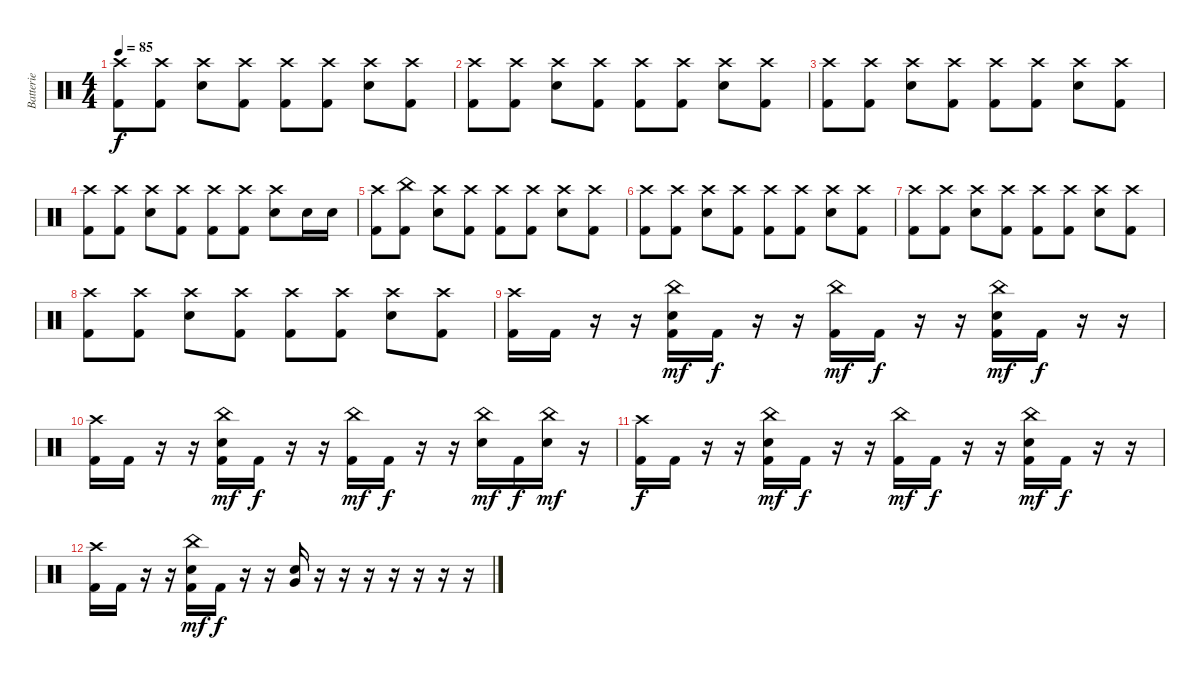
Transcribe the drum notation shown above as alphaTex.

\track ("Batterie" "Batterie") {instrument percussion}
\staff {score}
\articulation defaults
\ts (4 4)
\tempo 85
\clef neutral
\ks c
("Crash high (hit)" "Kick (hit) 2").8{dy f} ("Crash high (hit)" "Kick (hit) 2").8 ("Crash high (hit)" "Electric Snare (hit)").8 ("Crash high (hit)" "Kick (hit) 2").8 ("Crash high (hit)" "Kick (hit) 2").8 ("Crash high (hit)" "Kick (hit) 2").8 ("Crash high (hit)" "Electric Snare (hit)").8 ("Crash high (hit)" "Kick (hit) 2").8 |
("Crash high (hit)" "Kick (hit) 2").8 ("Crash high (hit)" "Kick (hit) 2").8 ("Crash high (hit)" "Electric Snare (hit)").8 ("Crash high (hit)" "Kick (hit) 2").8 ("Crash high (hit)" "Kick (hit) 2").8 ("Crash high (hit)" "Kick (hit) 2").8 ("Crash high (hit)" "Electric Snare (hit)").8 ("Crash high (hit)" "Kick (hit) 2").8 |
("Crash high (hit)" "Kick (hit) 2").8 ("Crash high (hit)" "Kick (hit) 2").8 ("Crash high (hit)" "Electric Snare (hit)").8 ("Crash high (hit)" "Kick (hit) 2").8 ("Crash high (hit)" "Kick (hit) 2").8 ("Crash high (hit)" "Kick (hit) 2").8 ("Crash high (hit)" "Electric Snare (hit)").8 ("Crash high (hit)" "Kick (hit) 2").8 |
("Crash high (hit)" "Kick (hit) 2").8 ("Crash high (hit)" "Kick (hit) 2").8 ("Crash high (hit)" "Electric Snare (hit)").8 ("Crash high (hit)" "Kick (hit) 2").8 ("Crash high (hit)" "Kick (hit) 2").8 ("Crash high (hit)" "Kick (hit) 2").8 ("Crash high (hit)" "Electric Snare (hit)").8 "Electric Snare (hit)".16 "Electric Snare (hit)".16 |
("Crash high (hit)" "Kick (hit) 2").8 ("China (hit)" "Kick (hit) 2").8 ("Crash high (hit)" "Electric Snare (hit)").8 ("Crash high (hit)" "Kick (hit) 2").8 ("Crash high (hit)" "Kick (hit) 2").8 ("Crash high (hit)" "Kick (hit) 2").8 ("Crash high (hit)" "Electric Snare (hit)").8 ("Crash high (hit)" "Kick (hit) 2").8 |
("Crash high (hit)" "Kick (hit) 2").8 ("Crash high (hit)" "Kick (hit) 2").8 ("Crash high (hit)" "Electric Snare (hit)").8 ("Crash high (hit)" "Kick (hit) 2").8 ("Crash high (hit)" "Kick (hit) 2").8 ("Crash high (hit)" "Kick (hit) 2").8 ("Crash high (hit)" "Electric Snare (hit)").8 ("Crash high (hit)" "Kick (hit) 2").8 |
("Crash high (hit)" "Kick (hit) 2").8 ("Crash high (hit)" "Kick (hit) 2").8 ("Crash high (hit)" "Electric Snare (hit)").8 ("Crash high (hit)" "Kick (hit) 2").8 ("Crash high (hit)" "Kick (hit) 2").8 ("Crash high (hit)" "Kick (hit) 2").8 ("Crash high (hit)" "Electric Snare (hit)").8 ("Crash high (hit)" "Kick (hit) 2").8 |
("Crash high (hit)" "Kick (hit) 2").8 ("Crash high (hit)" "Kick (hit) 2").8 ("Crash high (hit)" "Electric Snare (hit)").8 ("Crash high (hit)" "Kick (hit) 2").8 ("Crash high (hit)" "Kick (hit) 2").8 ("Crash high (hit)" "Kick (hit) 2").8 ("Crash high (hit)" "Electric Snare (hit)").8 ("Crash high (hit)" "Kick (hit) 2").8 |
("Crash high (hit)" "Kick (hit) 2").16 "Kick (hit) 2".16 r.16 r.16 ("China (hit)" "Electric Snare (hit)" "Kick (hit) 2").16{dy mf} "Kick (hit) 2".16{dy f} r.16 r.16 ("China (hit)" "Kick (hit) 2").16{dy mf} "Kick (hit) 2".16{dy f} r.16 r.16 ("China (hit)" "Electric Snare (hit)" "Kick (hit) 2").16{dy mf} "Kick (hit) 2".16{dy f} r.16 r.16 |
("Crash high (hit)" "Kick (hit) 2").16 "Kick (hit) 2".16 r.16 r.16 ("China (hit)" "Electric Snare (hit)" "Kick (hit) 2").16{dy mf} "Kick (hit) 2".16{dy f} r.16 r.16 ("China (hit)" "Kick (hit) 2").16{dy mf} "Kick (hit) 2".16{dy f} r.16 r.16 ("China (hit)" "Electric Snare (hit)").16{dy mf} "Kick (hit) 2".16{dy f} ("China (hit)" "Electric Snare (hit)").16{dy mf} r.16 |
("Crash high (hit)" "Kick (hit) 2").16{dy f} "Kick (hit) 2".16 r.16 r.16 ("China (hit)" "Electric Snare (hit)" "Kick (hit) 2").16{dy mf} "Kick (hit) 2".16{dy f} r.16 r.16 ("China (hit)" "Kick (hit) 2").16{dy mf} "Kick (hit) 2".16{dy f} r.16 r.16 ("China (hit)" "Electric Snare (hit)" "Kick (hit) 2").16{dy mf} "Kick (hit) 2".16{dy f} r.16 r.16 |
("Crash high (hit)" "Kick (hit) 2").16 "Kick (hit) 2".16 r.16 r.16 ("China (hit)" "Electric Snare (hit)" "Kick (hit) 2").16{dy mf} "Kick (hit) 2".16{dy f} r.16 r.16 ("Electric Snare (hit)" "Very Low Tom (hit)").16 r.16 r.16 r.16 r.16 r.16 r.16 r.16
